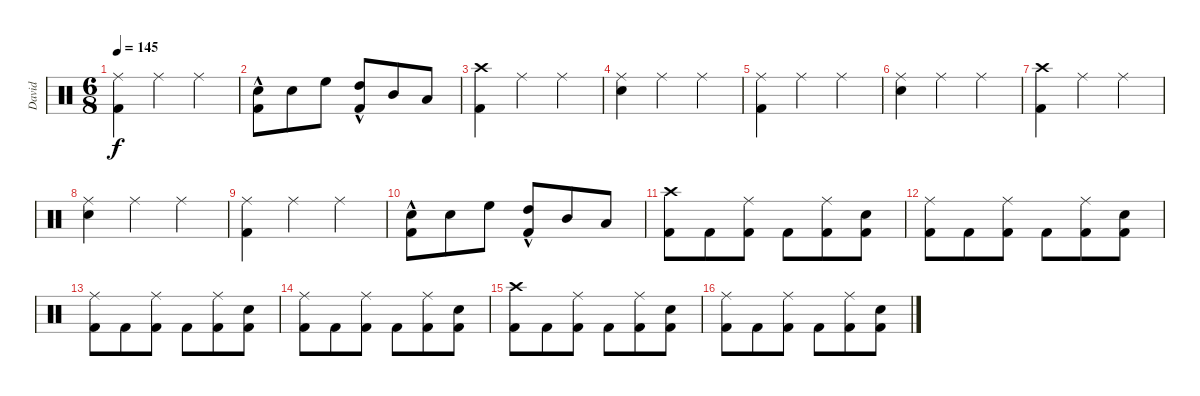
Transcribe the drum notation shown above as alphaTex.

\track ("David" "David") {instrument percussion}
\staff {score}
\articulation defaults
\ts (6 8)
\tempo 145
\clef neutral
\ks c
("Ride (middle)" "Kick (hit) 2").4{dy f} "Ride (middle)".4 "Ride (middle)".4 |
("Electric Snare (hit)" "Kick (hit) 2"{hac}).8 "Electric Snare (hit)".8 "High Floor Tom (hit)".8 ("High Tom (hit)" "Kick (hit) 2"{hac}).8 "Mid Tom (hit)".8 "Low Tom (hit)".8 |
("Crash high (hit)" "Kick (hit) 2").4 "Ride (middle)".4 "Ride (middle)".4 |
("Ride (middle)" "Electric Snare (hit)").4 "Ride (middle)".4 "Ride (middle)".4 |
("Ride (middle)" "Kick (hit) 2").4 "Ride (middle)".4 "Ride (middle)".4 |
("Ride (middle)" "Electric Snare (hit)").4 "Ride (middle)".4 "Ride (middle)".4 |
("Crash high (hit)" "Kick (hit) 2").4 "Ride (middle)".4 "Ride (middle)".4 |
("Ride (middle)" "Electric Snare (hit)").4 "Ride (middle)".4 "Ride (middle)".4 |
("Ride (middle)" "Kick (hit) 2").4 "Ride (middle)".4 "Ride (middle)".4 |
("Electric Snare (hit)" "Kick (hit) 2"{hac}).8 "Electric Snare (hit)".8 "High Floor Tom (hit)".8 ("High Tom (hit)" "Kick (hit) 2"{hac}).8 "Mid Tom (hit)".8 "Low Tom (hit)".8 |
("Crash high (hit)" "Kick (hit) 2").8 "Kick (hit) 2".8 ("Ride (middle)" "Kick (hit) 2").8 "Kick (hit) 2".8 ("Ride (middle)" "Kick (hit) 2").8 ("Electric Snare (hit)" "Kick (hit) 2").8 |
("Ride (middle)" "Kick (hit) 2").8 "Kick (hit) 2".8 ("Ride (middle)" "Kick (hit) 2").8 "Kick (hit) 2".8 ("Ride (middle)" "Kick (hit) 2").8 ("Electric Snare (hit)" "Kick (hit) 2").8 |
("Ride (middle)" "Kick (hit) 2").8 "Kick (hit) 2".8 ("Ride (middle)" "Kick (hit) 2").8 "Kick (hit) 2".8 ("Ride (middle)" "Kick (hit) 2").8 ("Electric Snare (hit)" "Kick (hit) 2").8 |
("Ride (middle)" "Kick (hit) 2").8 "Kick (hit) 2".8 ("Ride (middle)" "Kick (hit) 2").8 "Kick (hit) 2".8 ("Ride (middle)" "Kick (hit) 2").8 ("Electric Snare (hit)" "Kick (hit) 2").8 |
("Crash high (hit)" "Kick (hit) 2").8 "Kick (hit) 2".8 ("Ride (middle)" "Kick (hit) 2").8 "Kick (hit) 2".8 ("Ride (middle)" "Kick (hit) 2").8 ("Electric Snare (hit)" "Kick (hit) 2").8 |
("Ride (middle)" "Kick (hit) 2").8 "Kick (hit) 2".8 ("Ride (middle)" "Kick (hit) 2").8 "Kick (hit) 2".8 ("Ride (middle)" "Kick (hit) 2").8 ("Electric Snare (hit)" "Kick (hit) 2").8
